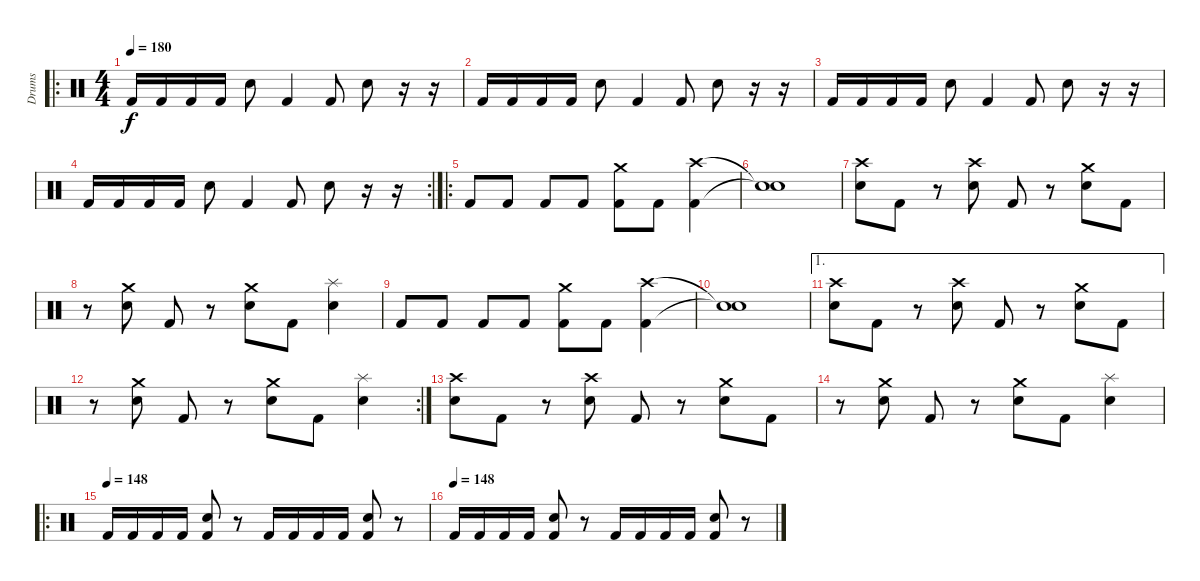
\track ("Drums" "Drums") {instrument percussion}
\staff {score}
\articulation defaults
\ro
\ts (4 4)
\tempo 180
\clef neutral
\ks c "Kick (hit) 2".16{dy f} "Kick (hit) 2".16 "Kick (hit) 2".16 "Kick (hit) 2".16 "Electric Snare (hit)".8 "Kick (hit) 2".4 "Kick (hit) 2".8 "Electric Snare (hit)".8
r.16 r.16 |
"Kick (hit) 2".16 "Kick (hit) 2".16 "Kick (hit) 2".16 "Kick (hit) 2".16 "Electric Snare (hit)".8 "Kick (hit) 2".4 "Kick (hit) 2".8 "Electric Snare (hit)".8 r.16 r.16 |
"Kick (hit) 2".16 "Kick (hit) 2".16 "Kick (hit) 2".16 "Kick (hit) 2".16 "Electric Snare (hit)".8 "Kick (hit) 2".4 "Kick (hit) 2".8 "Electric Snare (hit)".8 r.16 r.16 |
\rc 2 "Kick (hit) 2".16 "Kick (hit) 2".16 "Kick (hit) 2".16 "Kick (hit) 2".16 "Electric Snare (hit)".8 "Kick (hit) 2".4 "Kick (hit) 2".8 "Electric Snare (hit)".8
r.16 r.16 |
\ro "Kick (hit) 2".8 "Kick (hit) 2".8 "Kick (hit) 2".8 "Kick (hit) 2".8
("Crash medium (hit)" "Kick (hit) 2").8 "Kick (hit) 2".8 ("Crash high (hit)" "Kick (hit) 2").4 |
("Snare (hit)"{t} "Snare (hit)"{t}).1 |
("Crash high (hit)" "Electric Snare (hit)").8 "Kick (hit) 2".8 r.8 ("Crash high (hit)" "Electric Snare (hit)").8 "Kick (hit) 2".8 r.8 ("Crash medium (hit)" "Electric Snare (hit)").8 "Kick (hit) 2".8 |
r.8 ("Crash medium (hit)" "Electric Snare (hit)").8 "Kick (hit) 2".8 r.8 ("Crash medium (hit)" "Electric Snare (hit)").8 "Kick (hit) 2".8 ("Splash (hit)" "Electric Snare (hit)").4 |
"Kick (hit) 2".8 "Kick (hit) 2".8 "Kick (hit) 2".8 "Kick (hit) 2".8 ("Crash medium (hit)" "Kick (hit) 2").8 "Kick (hit) 2".8 ("Crash high (hit)" "Kick (hit) 2").4 |
("Snare (hit)"{t} "Snare (hit)"{t}).1 |
\ae 1
("Crash high (hit)" "Electric Snare (hit)").8 "Kick (hit) 2".8 r.8 ("Crash high (hit)" "Electric Snare (hit)").8 "Kick (hit) 2".8 r.8 ("Crash medium (hit)" "Electric Snare (hit)").8 "Kick (hit) 2".8 |
\rc 2
r.8 ("Crash medium (hit)" "Electric Snare (hit)").8 "Kick (hit) 2".8 r.8 ("Crash medium (hit)" "Electric Snare (hit)").8 "Kick (hit) 2".8 ("Splash (hit)" "Electric Snare (hit)").4 |
("Crash high (hit)" "Electric Snare (hit)").8 "Kick (hit) 2".8 r.8 ("Crash high (hit)" "Electric Snare (hit)").8 "Kick (hit) 2".8 r.8 ("Crash medium (hit)" "Electric Snare (hit)").8 "Kick (hit) 2".8 |
r.8 ("Crash medium (hit)" "Electric Snare (hit)").8 "Kick (hit) 2".8 r.8 ("Crash medium (hit)" "Electric Snare (hit)").8 "Kick (hit) 2".8 ("Splash (hit)" "Electric Snare (hit)").4 |
\ro
\tempo (148)
"Kick (hit) 2".16 "Kick (hit) 2".16 "Kick (hit) 2".16 "Kick (hit) 2".16 ("Electric Snare (hit)" "Kick (hit) 2").8 r.8 "Kick (hit) 2".16 "Kick (hit) 2".16 "Kick (hit) 2".16 "Kick (hit) 2".16 ("Electric Snare (hit)" "Kick (hit) 2").8 r.8 |
\tempo (148)
"Kick (hit) 2".16 "Kick (hit) 2".16 "Kick (hit) 2".16 "Kick (hit) 2".16 ("Electric Snare (hit)" "Kick (hit) 2").8 r.8 "Kick (hit) 2".16 "Kick (hit) 2".16 "Kick (hit) 2".16 "Kick (hit) 2".16 ("Electric Snare (hit)" "Kick (hit) 2").8 r.8
